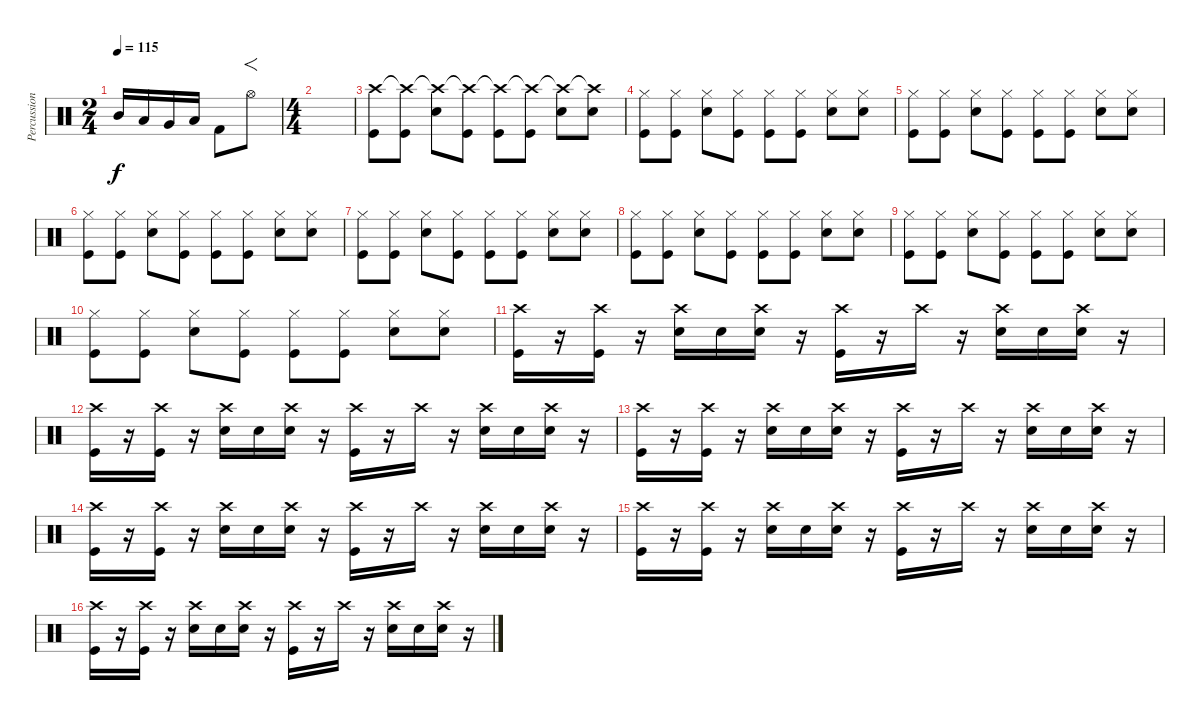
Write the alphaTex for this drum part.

\track ("Percussions" "Percussion") {instrument percussion}
\staff {score}
\articulation defaults
\ts (2 4)
\tempo 115
\clef neutral
\ks c "Mid Tom (hit)".16{dy f} "Low Tom (hit)".16 "Very Low Tom (hit)".16 "Low Floor Tom (hit)".16 "Kick (hit) 2".8 "Hi-Hat (open)".8{f}
|
\ts (4 4)
|
("Crash high (hit)" "Kick (hit)").8 ("Crash high (hit)"{t} "Kick (hit)").8 ("Crash high (hit)"{t} "Electric Snare (hit)").8 ("Crash high (hit)"{t} "Kick (hit)").8 ("Crash high (hit)"{t} "Kick (hit)").8 ("Crash high (hit)"{t} "Kick (hit)").8 ("Crash high (hit)"{t} "Electric Snare (hit)").8 ("Crash high (hit)"{t} "Electric Snare (hit)").8 |
("Hi-Hat (closed)" "Kick (hit)").8 ("Hi-Hat (closed)" "Kick (hit)").8 ("Hi-Hat (closed)" "Electric Snare (hit)").8 ("Hi-Hat (closed)" "Kick (hit)").8 ("Hi-Hat (closed)" "Kick (hit)").8 ("Hi-Hat (closed)" "Kick (hit)").8 ("Hi-Hat (closed)" "Electric Snare (hit)").8 ("Hi-Hat (closed)" "Electric Snare (hit)").8 |
("Hi-Hat (closed)" "Kick (hit)").8 ("Hi-Hat (closed)" "Kick (hit)").8 ("Hi-Hat (closed)" "Electric Snare (hit)").8 ("Hi-Hat (closed)" "Kick (hit)").8 ("Hi-Hat (closed)" "Kick (hit)").8 ("Hi-Hat (closed)" "Kick (hit)").8 ("Hi-Hat (closed)" "Electric Snare (hit)").8 ("Hi-Hat (closed)" "Electric Snare (hit)").8 |
("Hi-Hat (closed)" "Kick (hit)").8 ("Hi-Hat (closed)" "Kick (hit)").8 ("Hi-Hat (closed)" "Electric Snare (hit)").8 ("Hi-Hat (closed)" "Kick (hit)").8 ("Hi-Hat (closed)" "Kick (hit)").8 ("Hi-Hat (closed)" "Kick (hit)").8 ("Hi-Hat (closed)" "Electric Snare (hit)").8 ("Hi-Hat (closed)" "Electric Snare (hit)").8 |
("Hi-Hat (closed)" "Kick (hit)").8 ("Hi-Hat (closed)" "Kick (hit)").8 ("Hi-Hat (closed)" "Electric Snare (hit)").8 ("Hi-Hat (closed)" "Kick (hit)").8 ("Hi-Hat (closed)" "Kick (hit)").8 ("Hi-Hat (closed)" "Kick (hit)").8 ("Hi-Hat (closed)" "Electric Snare (hit)").8 ("Hi-Hat (closed)" "Electric Snare (hit)").8 |
("Hi-Hat (closed)" "Kick (hit)").8 ("Hi-Hat (closed)" "Kick (hit)").8 ("Hi-Hat (closed)" "Electric Snare (hit)").8 ("Hi-Hat (closed)" "Kick (hit)").8 ("Hi-Hat (closed)" "Kick (hit)").8 ("Hi-Hat (closed)" "Kick (hit)").8 ("Hi-Hat (closed)" "Electric Snare (hit)").8 ("Hi-Hat (closed)" "Electric Snare (hit)").8 |
("Hi-Hat (closed)" "Kick (hit)").8 ("Hi-Hat (closed)" "Kick (hit)").8 ("Hi-Hat (closed)" "Electric Snare (hit)").8 ("Hi-Hat (closed)" "Kick (hit)").8 ("Hi-Hat (closed)" "Kick (hit)").8 ("Hi-Hat (closed)" "Kick (hit)").8 ("Hi-Hat (closed)" "Electric Snare (hit)").8 ("Hi-Hat (closed)" "Electric Snare (hit)").8 |
("Hi-Hat (closed)" "Kick (hit)").8 ("Hi-Hat (closed)" "Kick (hit)").8 ("Hi-Hat (closed)" "Electric Snare (hit)").8 ("Hi-Hat (closed)" "Kick (hit)").8 ("Hi-Hat (closed)" "Kick (hit)").8 ("Hi-Hat (closed)" "Kick (hit)").8 ("Hi-Hat (closed)" "Electric Snare (hit)").8 ("Hi-Hat (closed)" "Electric Snare (hit)").8 |
("Crash high (hit)" "Kick (hit)").16 r.16 ("Crash high (hit)" "Kick (hit)").16 r.16 ("Crash high (hit)" "Electric Snare (hit)").16 "Snare (hit) 2".16 ("Crash high (hit)" "Electric Snare (hit)").16 r.16 ("Crash high (hit)" "Kick (hit)").16 r.16 "Crash high (hit)".16 r.16 ("Crash high (hit)" "Electric Snare (hit)").16 "Snare (hit) 2".16 ("Crash high (hit)" "Electric Snare (hit)").16 r.16 |
("Crash high (hit)" "Kick (hit)").16 r.16 ("Crash high (hit)" "Kick (hit)").16 r.16 ("Crash high (hit)" "Electric Snare (hit)").16 "Snare (hit) 2".16 ("Crash high (hit)" "Electric Snare (hit)").16 r.16 ("Crash high (hit)" "Kick (hit)").16 r.16 "Crash high (hit)".16 r.16 ("Crash high (hit)" "Electric Snare (hit)").16 "Snare (hit) 2".16 ("Crash high (hit)" "Electric Snare (hit)").16 r.16 |
("Crash high (hit)" "Kick (hit)").16 r.16 ("Crash high (hit)" "Kick (hit)").16 r.16 ("Crash high (hit)" "Electric Snare (hit)").16 "Snare (hit) 2".16 ("Crash high (hit)" "Electric Snare (hit)").16 r.16 ("Crash high (hit)" "Kick (hit)").16 r.16 "Crash high (hit)".16 r.16 ("Crash high (hit)" "Electric Snare (hit)").16 "Snare (hit) 2".16 ("Crash high (hit)" "Electric Snare (hit)").16 r.16 |
("Crash high (hit)" "Kick (hit)").16 r.16 ("Crash high (hit)" "Kick (hit)").16 r.16 ("Crash high (hit)" "Electric Snare (hit)").16 "Snare (hit) 2".16 ("Crash high (hit)" "Electric Snare (hit)").16 r.16 ("Crash high (hit)" "Kick (hit)").16 r.16 "Crash high (hit)".16 r.16 ("Crash high (hit)" "Electric Snare (hit)").16 "Snare (hit) 2".16 ("Crash high (hit)" "Electric Snare (hit)").16 r.16 |
("Crash high (hit)" "Kick (hit)").16 r.16 ("Crash high (hit)" "Kick (hit)").16 r.16 ("Crash high (hit)" "Electric Snare (hit)").16 "Snare (hit) 2".16 ("Crash high (hit)" "Electric Snare (hit)").16 r.16 ("Crash high (hit)" "Kick (hit)").16 r.16 "Crash high (hit)".16 r.16 ("Crash high (hit)" "Electric Snare (hit)").16 "Snare (hit) 2".16 ("Crash high (hit)" "Electric Snare (hit)").16 r.16 |
("Crash high (hit)" "Kick (hit)").16 r.16 ("Crash high (hit)" "Kick (hit)").16 r.16 ("Crash high (hit)" "Electric Snare (hit)").16 "Snare (hit) 2".16 ("Crash high (hit)" "Electric Snare (hit)").16 r.16 ("Crash high (hit)" "Kick (hit)").16 r.16 "Crash high (hit)".16 r.16 ("Crash high (hit)" "Electric Snare (hit)").16 "Snare (hit) 2".16 ("Crash high (hit)" "Electric Snare (hit)").16 r.16
